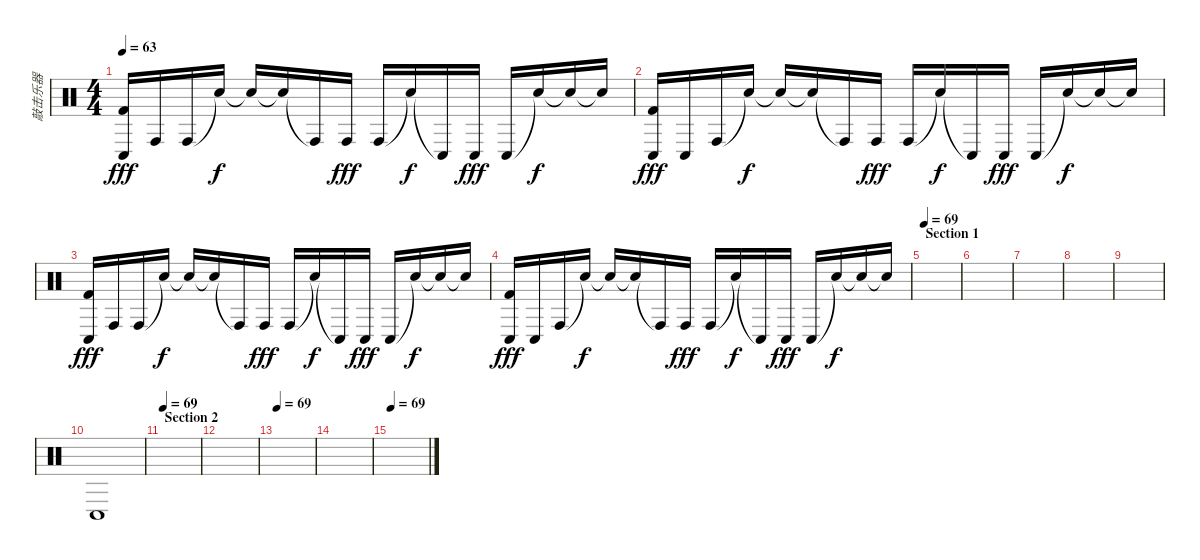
\track ("敲击乐器" "敲击乐器") {instrument percussion}
\staff {score}
\articulation defaults
\ts (4 4)
\tempo 63
\clef neutral
\ks c
("Conga low (hit)" "Kick (hit) 2").16{dy fff} "Conga high (hit)".16 "Conga high (hit)".16 "Snare (hit)"{t}.16{dy f} "Snare (hit)"{t}.16 "Snare (hit)"{t}.16 "Conga high (hit)"{t}.16 "Conga high (hit)".16{dy fff} "Conga high (hit)".16 "Snare (hit)"{t}.16{dy f} "Conga low (hit)"{t}.16 "Conga low (hit)".16{dy fff} "Conga low (hit)".16 "Snare (hit)"{t}.16{dy f} "Snare (hit)"{t}.16 "Snare (hit)"{t}.16 |
("Conga low (hit)" "Kick (hit) 2").16{dy fff} "Conga low (hit)".16 "Conga high (hit)".16 "Snare (hit)"{t}.16{dy f} "Snare (hit)"{t}.16 "Snare (hit)"{t}.16 "Conga high (hit)"{t}.16 "Conga high (hit)".16{dy fff} "Conga high (hit)".16 "Snare (hit)"{t}.16{dy f} "Conga low (hit)"{t}.16 "Conga low (hit)".16{dy fff} "Conga low (hit)".16 "Snare (hit)"{t}.16{dy f} "Snare (hit)"{t}.16 "Snare (hit)"{t}.16 |
("Conga low (hit)" "Kick (hit) 2").16{dy fff} "Conga high (hit)".16 "Conga high (hit)".16 "Snare (hit)"{t}.16{dy f} "Snare (hit)"{t}.16 "Snare (hit)"{t}.16 "Conga high (hit)"{t}.16 "Conga high (hit)".16{dy fff} "Conga high (hit)".16 "Snare (hit)"{t}.16{dy f} "Conga low (hit)"{t}.16 "Conga low (hit)".16{dy fff} "Conga low (hit)".16 "Snare (hit)"{t}.16{dy f} "Snare (hit)"{t}.16 "Snare (hit)"{t}.16 |
("Conga low (hit)" "Kick (hit) 2").16{dy fff} "Conga low (hit)".16 "Conga high (hit)".16 "Snare (hit)"{t}.16{dy f} "Snare (hit)"{t}.16 "Snare (hit)"{t}.16 "Conga high (hit)"{t}.16 "Conga high (hit)".16{dy fff} "Conga high (hit)".16 "Snare (hit)"{t}.16{dy f} "Conga low (hit)"{t}.16 "Conga low (hit)".16{dy fff} "Conga low (hit)".16 "Snare (hit)"{t}.16{dy f} "Snare (hit)"{t}.16 "Snare (hit)"{t}.16 |
\section ("" "Section 1")
\tempo 69
|
|
|
|
|
"Conga low (hit)".1 |
\section ("" "Section 2")
\tempo 69
|
|
\tempo 69
|
|
\tempo 69
